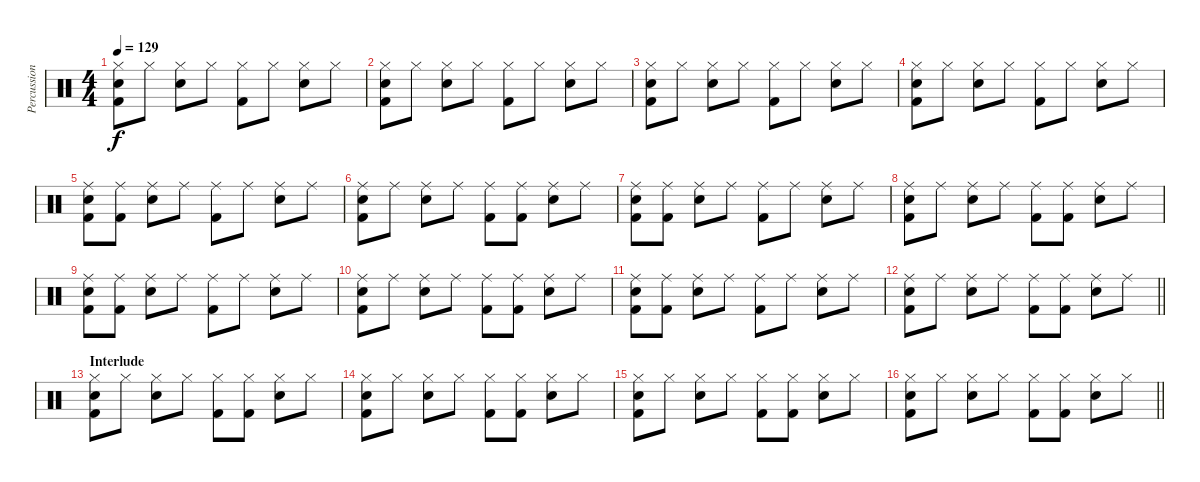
\track ("Percussion" "Percussion") {instrument percussion}
\staff {score}
\articulation defaults
\ts (4 4)
\tempo 129
\clef neutral
\ks c
("Hi-Hat (closed)" "Electric Snare (hit)" "Kick (hit) 2").8{dy f} "Hi-Hat (closed)".8 ("Hi-Hat (closed)" "Electric Snare (hit)").8 "Hi-Hat (closed)".8 ("Hi-Hat (closed)" "Kick (hit) 2").8 "Hi-Hat (closed)".8 ("Hi-Hat (closed)" "Electric Snare (hit)").8 "Hi-Hat (closed)".8 |
("Hi-Hat (closed)" "Electric Snare (hit)" "Kick (hit) 2").8 "Hi-Hat (closed)".8 ("Hi-Hat (closed)" "Electric Snare (hit)").8 "Hi-Hat (closed)".8 ("Hi-Hat (closed)" "Kick (hit) 2").8 "Hi-Hat (closed)".8 ("Hi-Hat (closed)" "Electric Snare (hit)").8 "Hi-Hat (closed)".8 |
("Hi-Hat (closed)" "Electric Snare (hit)" "Kick (hit) 2").8 "Hi-Hat (closed)".8 ("Hi-Hat (closed)" "Electric Snare (hit)").8 "Hi-Hat (closed)".8 ("Hi-Hat (closed)" "Kick (hit) 2").8 "Hi-Hat (closed)".8 ("Hi-Hat (closed)" "Electric Snare (hit)").8 "Hi-Hat (closed)".8 |
("Hi-Hat (closed)" "Electric Snare (hit)" "Kick (hit) 2").8 "Hi-Hat (closed)".8 ("Hi-Hat (closed)" "Electric Snare (hit)").8 "Hi-Hat (closed)".8 ("Hi-Hat (closed)" "Kick (hit) 2").8 "Hi-Hat (closed)".8 ("Hi-Hat (closed)" "Electric Snare (hit)").8 "Hi-Hat (closed)".8 |
("Ride (middle)" "Electric Snare (hit)" "Kick (hit) 2").8 ("Ride (middle)" "Kick (hit) 2").8 ("Ride (middle)" "Electric Snare (hit)").8 "Ride (middle)".8 ("Ride (middle)" "Kick (hit) 2").8 "Ride (middle)".8 ("Ride (middle)" "Electric Snare (hit)").8 "Ride (middle)".8 |
("Ride (middle)" "Electric Snare (hit)" "Kick (hit) 2").8 "Ride (middle)".8 ("Ride (middle)" "Electric Snare (hit)").8 "Ride (middle)".8 ("Ride (middle)" "Kick (hit) 2").8 ("Ride (middle)" "Kick (hit) 2").8 ("Ride (middle)" "Electric Snare (hit)").8 "Ride (middle)".8 |
("Ride (middle)" "Electric Snare (hit)" "Kick (hit) 2").8 ("Ride (middle)" "Kick (hit) 2").8 ("Ride (middle)" "Electric Snare (hit)").8 "Ride (middle)".8 ("Ride (middle)" "Kick (hit) 2").8 "Ride (middle)".8 ("Ride (middle)" "Electric Snare (hit)").8 "Ride (middle)".8 |
("Ride (middle)" "Electric Snare (hit)" "Kick (hit) 2").8 "Ride (middle)".8 ("Ride (middle)" "Electric Snare (hit)").8 "Ride (middle)".8 ("Ride (middle)" "Kick (hit) 2").8 ("Ride (middle)" "Kick (hit) 2").8 ("Ride (middle)" "Electric Snare (hit)").8 "Ride (middle)".8 |
("Ride (middle)" "Electric Snare (hit)" "Kick (hit) 2").8 ("Ride (middle)" "Kick (hit) 2").8 ("Ride (middle)" "Electric Snare (hit)").8 "Ride (middle)".8 ("Ride (middle)" "Kick (hit) 2").8 "Ride (middle)".8 ("Ride (middle)" "Electric Snare (hit)").8 "Ride (middle)".8 |
("Ride (middle)" "Electric Snare (hit)" "Kick (hit) 2").8 "Ride (middle)".8 ("Ride (middle)" "Electric Snare (hit)").8 "Ride (middle)".8 ("Ride (middle)" "Kick (hit) 2").8 ("Ride (middle)" "Kick (hit) 2").8 ("Ride (middle)" "Electric Snare (hit)").8 "Ride (middle)".8 |
("Ride (middle)" "Electric Snare (hit)" "Kick (hit) 2").8 ("Ride (middle)" "Kick (hit) 2").8 ("Ride (middle)" "Electric Snare (hit)").8 "Ride (middle)".8 ("Ride (middle)" "Kick (hit) 2").8 "Ride (middle)".8 ("Ride (middle)" "Electric Snare (hit)").8 "Ride (middle)".8 |
\barLineRight lightlight
("Ride (middle)" "Electric Snare (hit)" "Kick (hit) 2").8 "Ride (middle)".8 ("Ride (middle)" "Electric Snare (hit)").8 "Ride (middle)".8 ("Ride (middle)" "Kick (hit) 2").8 ("Ride (middle)" "Kick (hit) 2").8 ("Ride (middle)" "Electric Snare (hit)").8 "Ride (middle)".8 |
\section ("" "Interlude")
("Hi-Hat (closed)" "Electric Snare (hit)" "Kick (hit) 2").8 "Hi-Hat (closed)".8 ("Hi-Hat (closed)" "Electric Snare (hit)").8 "Hi-Hat (closed)".8 ("Hi-Hat (closed)" "Kick (hit) 2").8 ("Hi-Hat (closed)" "Kick (hit) 2").8 ("Hi-Hat (closed)" "Electric Snare (hit)").8 "Hi-Hat (closed)".8 |
("Hi-Hat (closed)" "Electric Snare (hit)" "Kick (hit) 2").8 "Hi-Hat (closed)".8 ("Hi-Hat (closed)" "Electric Snare (hit)").8 "Hi-Hat (closed)".8 ("Hi-Hat (closed)" "Kick (hit) 2").8 ("Hi-Hat (closed)" "Kick (hit) 2").8 ("Hi-Hat (closed)" "Electric Snare (hit)").8 "Hi-Hat (closed)".8 |
("Hi-Hat (closed)" "Electric Snare (hit)" "Kick (hit) 2").8 "Hi-Hat (closed)".8 ("Hi-Hat (closed)" "Electric Snare (hit)").8 "Hi-Hat (closed)".8 ("Hi-Hat (closed)" "Kick (hit) 2").8 ("Hi-Hat (closed)" "Kick (hit) 2").8 ("Hi-Hat (closed)" "Electric Snare (hit)").8 "Hi-Hat (closed)".8 |
\barLineRight lightlight
("Hi-Hat (closed)" "Electric Snare (hit)" "Kick (hit) 2").8 "Hi-Hat (closed)".8 ("Hi-Hat (closed)" "Electric Snare (hit)").8 "Hi-Hat (closed)".8 ("Hi-Hat (closed)" "Kick (hit) 2").8 ("Hi-Hat (closed)" "Kick (hit) 2").8 ("Hi-Hat (closed)" "Electric Snare (hit)").8 "Hi-Hat (closed)".8
